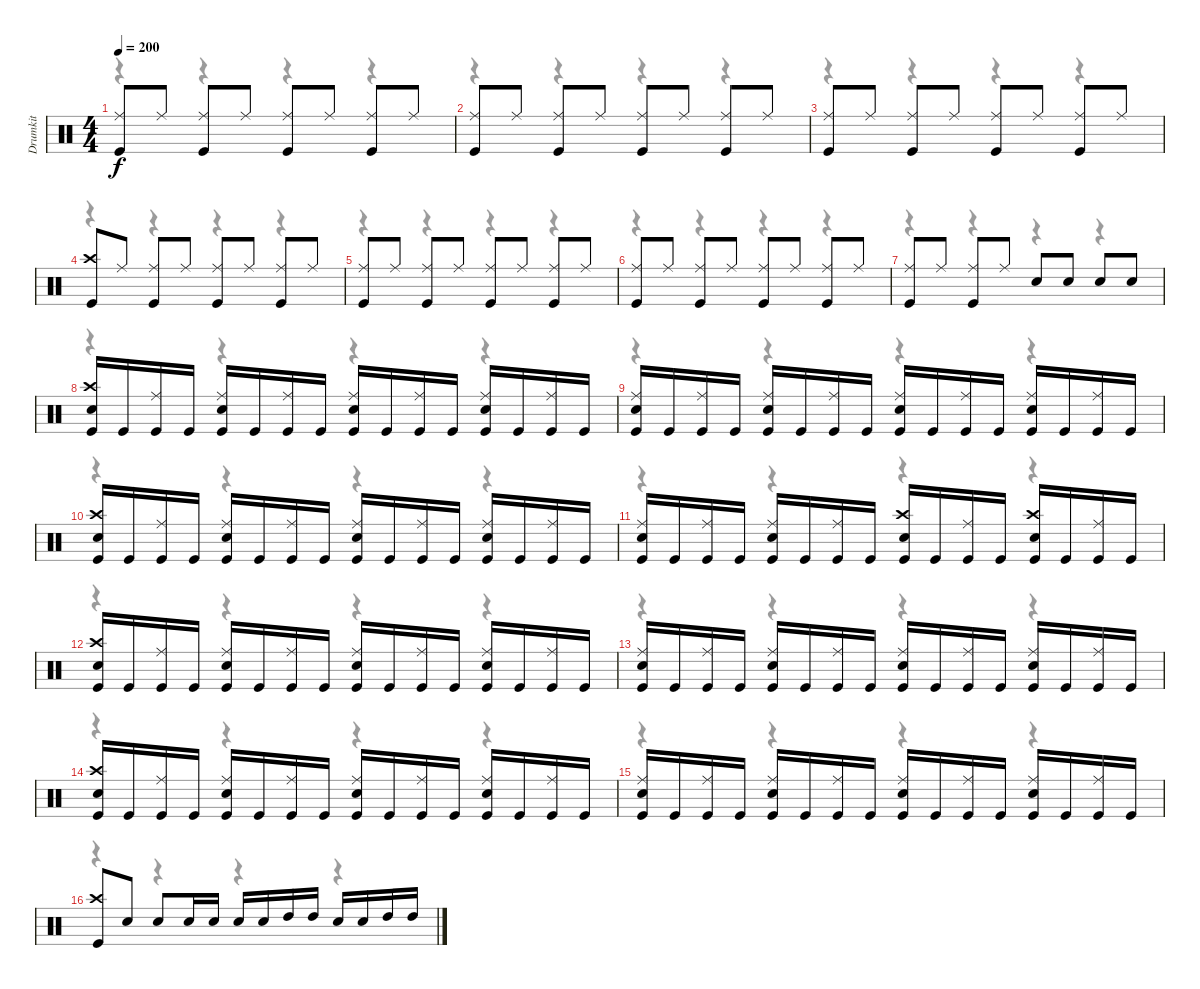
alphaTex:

\track ("Drumkit" "Drumkit") {instrument percussion}
\staff {score}
\articulation defaults
\voice
\ts (4 4)
\tempo 200
\clef neutral
\ks c
("Ride (middle)" "Kick (hit)").8{dy f} "Ride (middle)".8 ("Ride (middle)" "Kick (hit)").8 "Ride (middle)".8 ("Ride (middle)" "Kick (hit)").8 "Ride (middle)".8 ("Ride (middle)" "Kick (hit)").8 "Ride (middle)".8 |
("Ride (middle)" "Kick (hit)").8 "Ride (middle)".8 ("Ride (middle)" "Kick (hit)").8 "Ride (middle)".8 ("Ride (middle)" "Kick (hit)").8 "Ride (middle)".8 ("Ride (middle)" "Kick (hit)").8 "Ride (middle)".8 |
("Ride (middle)" "Kick (hit)").8 "Ride (middle)".8 ("Ride (middle)" "Kick (hit)").8 "Ride (middle)".8 ("Ride (middle)" "Kick (hit)").8 "Ride (middle)".8 ("Ride (middle)" "Kick (hit)").8 "Ride (middle)".8 |
("Crash high (hit)" "Kick (hit)").8 "Ride (middle)".8 ("Ride (middle)" "Kick (hit)").8 "Ride (middle)".8 ("Ride (middle)" "Kick (hit)").8 "Ride (middle)".8 ("Ride (middle)" "Kick (hit)").8 "Ride (middle)".8 |
("Ride (middle)" "Kick (hit)").8 "Ride (middle)".8 ("Ride (middle)" "Kick (hit)").8 "Ride (middle)".8 ("Ride (middle)" "Kick (hit)").8 "Ride (middle)".8 ("Ride (middle)" "Kick (hit)").8 "Ride (middle)".8 |
("Ride (middle)" "Kick (hit)").8 "Ride (middle)".8 ("Ride (middle)" "Kick (hit)").8 "Ride (middle)".8 ("Ride (middle)" "Kick (hit)").8 "Ride (middle)".8 ("Ride (middle)" "Kick (hit)").8 "Ride (middle)".8 |
("Ride (middle)" "Kick (hit)").8 "Ride (middle)".8 ("Ride (middle)" "Kick (hit)").8 "Ride (middle)".8 "Snare (hit) 2".8 "Snare (hit) 2".8 "Snare (hit) 2".8 "Snare (hit) 2".8 |
("Crash high (hit)" "Snare (hit) 2" "Kick (hit)").16 "Kick (hit)".16 ("Ride (middle)" "Kick (hit)").16 "Kick (hit)".16 ("Ride (middle)" "Snare (hit) 2" "Kick (hit)").16 "Kick (hit)".16 ("Ride (middle)" "Kick (hit)").16 "Kick (hit)".16 ("Ride (middle)" "Snare (hit) 2" "Kick (hit)").16 "Kick (hit)".16 ("Ride (middle)" "Kick (hit)").16 "Kick (hit)".16 ("Ride (middle)" "Snare (hit) 2" "Kick (hit)").16 "Kick (hit)".16 ("Ride (middle)" "Kick (hit)").16 "Kick (hit)".16 |
("Ride (middle)" "Snare (hit) 2" "Kick (hit)").16 "Kick (hit)".16 ("Ride (middle)" "Kick (hit)").16 "Kick (hit)".16 ("Ride (middle)" "Snare (hit) 2" "Kick (hit)").16 "Kick (hit)".16 ("Ride (middle)" "Kick (hit)").16 "Kick (hit)".16 ("Ride (middle)" "Snare (hit) 2" "Kick (hit)").16 "Kick (hit)".16 ("Ride (middle)" "Kick (hit)").16 "Kick (hit)".16 ("Ride (middle)" "Snare (hit) 2" "Kick (hit)").16 "Kick (hit)".16 ("Ride (middle)" "Kick (hit)").16 "Kick (hit)".16 |
("Crash high (hit)" "Snare (hit) 2" "Kick (hit)").16 "Kick (hit)".16 ("Ride (middle)" "Kick (hit)").16 "Kick (hit)".16 ("Ride (middle)" "Snare (hit) 2" "Kick (hit)").16 "Kick (hit)".16 ("Ride (middle)" "Kick (hit)").16 "Kick (hit)".16 ("Ride (middle)" "Snare (hit) 2" "Kick (hit)").16 "Kick (hit)".16 ("Ride (middle)" "Kick (hit)").16 "Kick (hit)".16 ("Ride (middle)" "Snare (hit) 2" "Kick (hit)").16 "Kick (hit)".16 ("Ride (middle)" "Kick (hit)").16 "Kick (hit)".16 |
("Ride (middle)" "Snare (hit) 2" "Kick (hit)").16 "Kick (hit)".16 ("Ride (middle)" "Kick (hit)").16 "Kick (hit)".16 ("Ride (middle)" "Snare (hit) 2" "Kick (hit)").16 "Kick (hit)".16 ("Ride (middle)" "Kick (hit)").16 "Kick (hit)".16 ("Crash high (hit)" "Snare (hit) 2" "Kick (hit)").16 "Kick (hit)".16 ("Ride (middle)" "Kick (hit)").16 "Kick (hit)".16 ("Crash high (hit)" "Snare (hit) 2" "Kick (hit)").16 "Kick (hit)".16 ("Ride (middle)" "Kick (hit)").16 "Kick (hit)".16 |
("Crash high (hit)" "Snare (hit) 2" "Kick (hit)").16 "Kick (hit)".16 ("Ride (middle)" "Kick (hit)").16 "Kick (hit)".16 ("Ride (middle)" "Snare (hit) 2" "Kick (hit)").16 "Kick (hit)".16 ("Ride (middle)" "Kick (hit)").16 "Kick (hit)".16 ("Ride (middle)" "Snare (hit) 2" "Kick (hit)").16 "Kick (hit)".16 ("Ride (middle)" "Kick (hit)").16 "Kick (hit)".16 ("Ride (middle)" "Snare (hit) 2" "Kick (hit)").16 "Kick (hit)".16 ("Ride (middle)" "Kick (hit)").16 "Kick (hit)".16 |
("Ride (middle)" "Snare (hit) 2" "Kick (hit)").16 "Kick (hit)".16 ("Ride (middle)" "Kick (hit)").16 "Kick (hit)".16 ("Ride (middle)" "Snare (hit) 2" "Kick (hit)").16 "Kick (hit)".16 ("Ride (middle)" "Kick (hit)").16 "Kick (hit)".16 ("Ride (middle)" "Snare (hit) 2" "Kick (hit)").16 "Kick (hit)".16 ("Ride (middle)" "Kick (hit)").16 "Kick (hit)".16 ("Ride (middle)" "Snare (hit) 2" "Kick (hit)").16 "Kick (hit)".16 ("Ride (middle)" "Kick (hit)").16 "Kick (hit)".16 |
("Crash high (hit)" "Snare (hit) 2" "Kick (hit)").16 "Kick (hit)".16 ("Ride (middle)" "Kick (hit)").16 "Kick (hit)".16 ("Ride (middle)" "Snare (hit) 2" "Kick (hit)").16 "Kick (hit)".16 ("Ride (middle)" "Kick (hit)").16 "Kick (hit)".16 ("Ride (middle)" "Snare (hit) 2" "Kick (hit)").16 "Kick (hit)".16 ("Ride (middle)" "Kick (hit)").16 "Kick (hit)".16 ("Ride (middle)" "Snare (hit) 2" "Kick (hit)").16 "Kick (hit)".16 ("Ride (middle)" "Kick (hit)").16 "Kick (hit)".16 |
("Ride (middle)" "Snare (hit) 2" "Kick (hit)").16 "Kick (hit)".16 ("Ride (middle)" "Kick (hit)").16 "Kick (hit)".16 ("Ride (middle)" "Snare (hit) 2" "Kick (hit)").16 "Kick (hit)".16 ("Ride (middle)" "Kick (hit)").16 "Kick (hit)".16 ("Ride (middle)" "Snare (hit) 2" "Kick (hit)").16 "Kick (hit)".16 ("Ride (middle)" "Kick (hit)").16 "Kick (hit)".16 ("Ride (middle)" "Snare (hit) 2" "Kick (hit)").16 "Kick (hit)".16 ("Ride (middle)" "Kick (hit)").16 "Kick (hit)".16 |
("Crash high (hit)" "Kick (hit)").8 "Snare (hit) 2".8 "Snare (hit) 2".8 "Snare (hit) 2".16 "Snare (hit) 2".16 "Snare (hit) 2".16 "Snare (hit) 2".16 "High Tom (hit)".16 "High Tom (hit)".16 "Snare (hit) 2".16 "Snare (hit) 2".16 "High Tom (hit)".16 "High Tom (hit)".16
\voice
\clef neutral
\ottava regular
\simile none
\ks c
r.4{dy f} r.4 r.4 r.4 |
r.4 r.4 r.4 r.4 |
r.4 r.4 r.4 r.4 |
r.4 r.4 r.4 r.4 |
r.4 r.4 r.4 r.4 |
r.4 r.4 r.4 r.4 |
r.4 r.4 r.4 r.4 |
r.4 r.4 r.4 r.4 |
r.4 r.4 r.4 r.4 |
r.4 r.4 r.4 r.4 |
r.4 r.4 r.4 r.4 |
r.4 r.4 r.4 r.4 |
r.4 r.4 r.4 r.4 |
r.4 r.4 r.4 r.4 |
r.4 r.4 r.4 r.4 |
r.4 r.4 r.4 r.4
